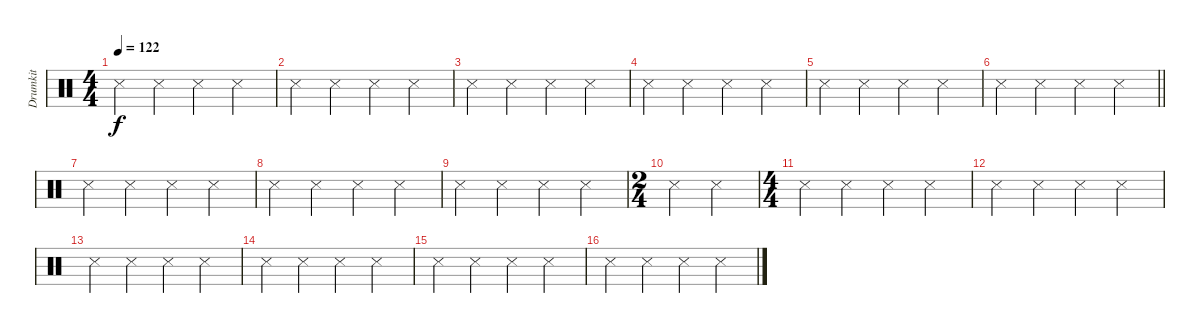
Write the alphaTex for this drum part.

\track ("Drumkit" "Drumkit") {mute instrument percussion}
\staff {score}
\articulation defaults
\ts (4 4)
\tempo 122
\clef neutral
\ks c "Snare (side stick) 3".4{dy f} "Snare (side stick) 3".4 "Snare (side stick) 3".4 "Snare (side stick) 3".4
|
"Snare (side stick) 3".4 "Snare (side stick) 3".4 "Snare (side stick) 3".4 "Snare (side stick) 3".4 |
"Snare (side stick) 3".4 "Snare (side stick) 3".4 "Snare (side stick) 3".4 "Snare (side stick) 3".4 |
"Snare (side stick) 3".4 "Snare (side stick) 3".4 "Snare (side stick) 3".4 "Snare (side stick) 3".4 |
"Snare (side stick) 3".4 "Snare (side stick) 3".4 "Snare (side stick) 3".4 "Snare (side stick) 3".4 |
\barLineRight lightlight "Snare (side stick) 3".4 "Snare (side stick) 3".4 "Snare (side stick) 3".4 "Snare (side stick) 3".4
|
"Snare (side stick) 3".4 "Snare (side stick) 3".4 "Snare (side stick) 3".4 "Snare (side stick) 3".4 |
"Snare (side stick) 3".4 "Snare (side stick) 3".4 "Snare (side stick) 3".4 "Snare (side stick) 3".4 |
"Snare (side stick) 3".4 "Snare (side stick) 3".4 "Snare (side stick) 3".4 "Snare (side stick) 3".4 |
\ts (2 4)
"Snare (side stick) 3".4 "Snare (side stick) 3".4 |
\ts (4 4)
"Snare (side stick) 3".4 "Snare (side stick) 3".4 "Snare (side stick) 3".4 "Snare (side stick) 3".4 |
"Snare (side stick) 3".4 "Snare (side stick) 3".4 "Snare (side stick) 3".4 "Snare (side stick) 3".4 |
"Snare (side stick) 3".4 "Snare (side stick) 3".4 "Snare (side stick) 3".4 "Snare (side stick) 3".4 |
"Snare (side stick) 3".4 "Snare (side stick) 3".4 "Snare (side stick) 3".4 "Snare (side stick) 3".4 |
"Snare (side stick) 3".4 "Snare (side stick) 3".4 "Snare (side stick) 3".4 "Snare (side stick) 3".4 |
"Snare (side stick) 3".4 "Snare (side stick) 3".4 "Snare (side stick) 3".4 "Snare (side stick) 3".4
